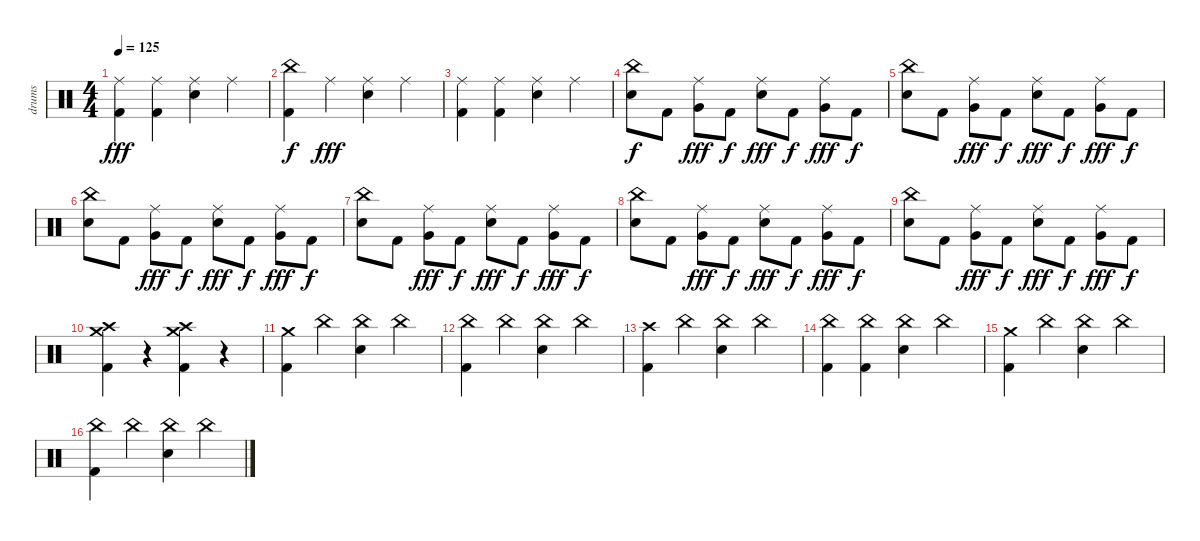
\track ("drums" "drums") {instrument percussion}
\staff {score}
\articulation defaults
\ts (4 4)
\tempo 125
\clef neutral
\ks c
("Kick (hit) 2" "Ride (middle)").4{dy fff} ("Kick (hit) 2" "Ride (middle)").4 ("Snare (hit) 2" "Ride (middle)").4 "Ride (middle)".4 |
("China (hit)" "Kick (hit) 2").4{dy f} "Ride (middle)".4{dy fff} ("Ride (middle)" "Snare (hit) 2").4 "Ride (middle)".4 |
("Kick (hit) 2" "Ride (middle)").4 ("Kick (hit) 2" "Ride (middle)").4 ("Snare (hit) 2" "Ride (middle)").4 "Ride (middle)".4 |
("China (hit)" "Snare (hit) 2").8{dy f} "Kick (hit) 2".8 ("Ride (middle)" "Very Low Tom (hit)").8{dy fff} "Kick (hit) 2".8{dy f} ("Ride (middle)" "Snare (hit) 2").8{dy fff} "Kick (hit) 2".8{dy f} ("Ride (middle)" "Very Low Tom (hit)").8{dy fff} "Kick (hit) 2".8{dy f} |
("China (hit)" "Snare (hit) 2").8 "Kick (hit) 2".8 ("Ride (middle)" "Very Low Tom (hit)").8{dy fff} "Kick (hit) 2".8{dy f} ("Ride (middle)" "Snare (hit) 2").8{dy fff} "Kick (hit) 2".8{dy f} ("Ride (middle)" "Very Low Tom (hit)").8{dy fff} "Kick (hit) 2".8{dy f} |
("China (hit)" "Snare (hit) 2").8 "Kick (hit) 2".8 ("Ride (middle)" "Very Low Tom (hit)").8{dy fff} "Kick (hit) 2".8{dy f} ("Ride (middle)" "Snare (hit) 2").8{dy fff} "Kick (hit) 2".8{dy f} ("Ride (middle)" "Very Low Tom (hit)").8{dy fff} "Kick (hit) 2".8{dy f} |
("China (hit)" "Snare (hit) 2").8 "Kick (hit) 2".8 ("Ride (middle)" "Very Low Tom (hit)").8{dy fff} "Kick (hit) 2".8{dy f} ("Ride (middle)" "Snare (hit) 2").8{dy fff} "Kick (hit) 2".8{dy f} ("Ride (middle)" "Very Low Tom (hit)").8{dy fff} "Kick (hit) 2".8{dy f} |
("China (hit)" "Snare (hit) 2").8 "Kick (hit) 2".8 ("Ride (middle)" "Very Low Tom (hit)").8{dy fff} "Kick (hit) 2".8{dy f} ("Ride (middle)" "Snare (hit) 2").8{dy fff} "Kick (hit) 2".8{dy f} ("Ride (middle)" "Very Low Tom (hit)").8{dy fff} "Kick (hit) 2".8{dy f} |
("China (hit)" "Snare (hit) 2").8 "Kick (hit) 2".8 ("Ride (middle)" "Very Low Tom (hit)").8{dy fff} "Kick (hit) 2".8{dy f} ("Ride (middle)" "Snare (hit) 2").8{dy fff} "Kick (hit) 2".8{dy f} ("Ride (middle)" "Very Low Tom (hit)").8{dy fff} "Kick (hit) 2".8{dy f} |
("Kick (hit) 2" "Crash high (hit)" "Crash medium (hit)").4 r.4 ("Kick (hit) 2" "Crash medium (hit)" "Crash high (hit)").4 r.4 |
("Kick (hit) 2" "Crash medium (hit)").4 "China (hit)".4 ("Snare (hit) 2" "China (hit)").4 "China (hit)".4 |
("Kick (hit) 2" "China (hit)").4 "China (hit)".4 ("Snare (hit) 2" "China (hit)").4 "China (hit)".4 |
("Kick (hit) 2" "Crash high (hit)").4 "China (hit)".4 ("Snare (hit) 2" "China (hit)").4 "China (hit)".4 |
("Kick (hit) 2" "China (hit)").4 ("Kick (hit) 2" "China (hit)").4 ("Snare (hit) 2" "China (hit)").4 "China (hit)".4 |
("Kick (hit) 2" "Crash medium (hit)").4 "China (hit)".4 ("Snare (hit) 2" "China (hit)").4 "China (hit)".4 |
("Kick (hit) 2" "China (hit)").4 "China (hit)".4 ("Snare (hit) 2" "China (hit)").4 "China (hit)".4
